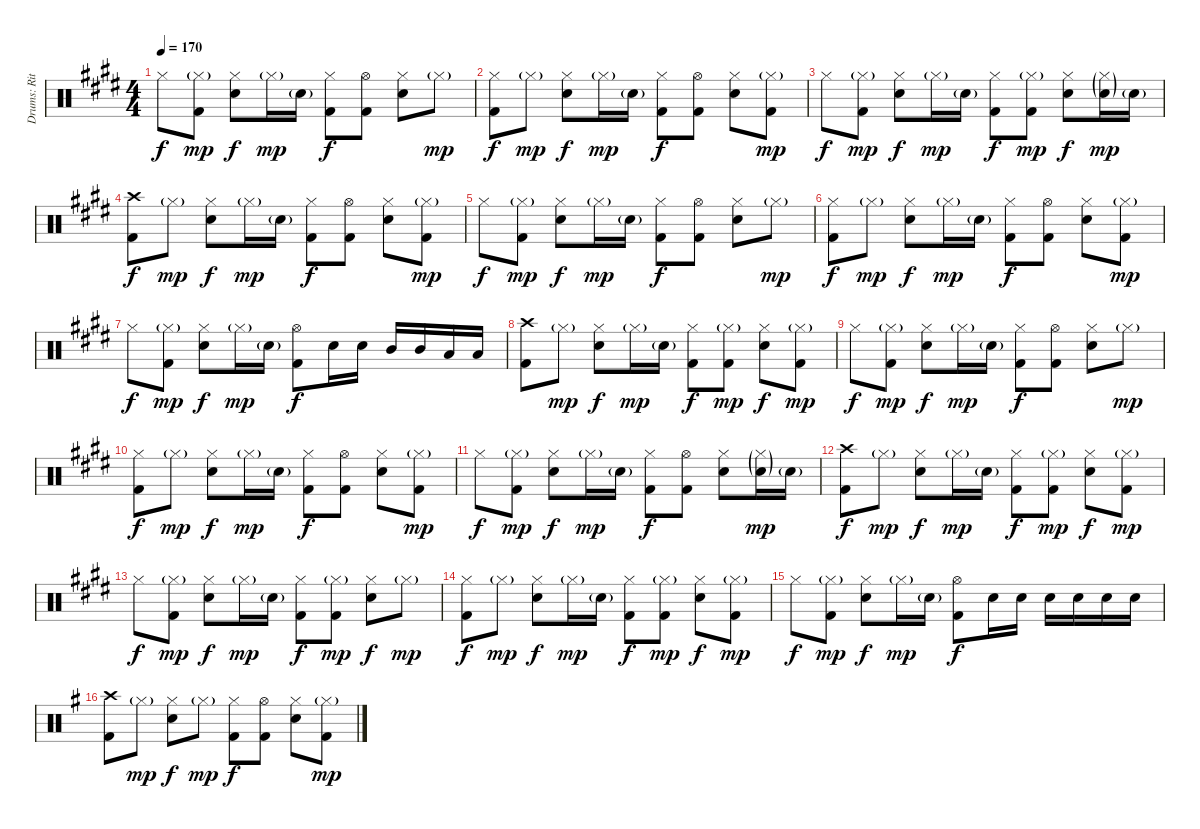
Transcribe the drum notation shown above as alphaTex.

\track ("Drums: Ritsu Tainaka" "Drums: Rit") {instrument percussion}
\staff {score}
\articulation defaults
\ts (4 4)
\tempo 170
\clef neutral
\ks e "Hi-Hat (closed)".8{dy f}
("Hi-Hat (closed)"{g} "Kick (hit) 2").8{dy mp} ("Hi-Hat (closed)" "Electric Snare (hit)").8{dy f} "Hi-Hat (closed)"{g}.16{dy mp} "Electric Snare (hit)"{g}.16 ("Hi-Hat (closed)" "Kick (hit) 2").8{dy f} ("Hi-Hat (open)" "Kick (hit) 2").8 ("Hi-Hat (closed)" "Electric Snare (hit)").8 "Hi-Hat (closed)"{g}.8{dy mp} |
("Hi-Hat (closed)" "Kick (hit) 2").8{dy f} "Hi-Hat (closed)"{g}.8{dy mp} ("Hi-Hat (closed)" "Electric Snare (hit)").8{dy f} "Hi-Hat (closed)"{g}.16{dy mp} "Electric Snare (hit)"{g}.16 ("Hi-Hat (closed)" "Kick (hit) 2").8{dy f} ("Hi-Hat (open)" "Kick (hit) 2").8 ("Hi-Hat (closed)" "Electric Snare (hit)").8 ("Hi-Hat (closed)"{g} "Kick (hit) 2").8{dy mp} |
"Hi-Hat (closed)".8{dy f} ("Hi-Hat (closed)"{g} "Kick (hit) 2").8{dy mp} ("Hi-Hat (closed)" "Electric Snare (hit)").8{dy f} "Hi-Hat (closed)"{g}.16{dy mp} "Electric Snare (hit)"{g}.16 ("Hi-Hat (closed)" "Kick (hit) 2").8{dy f} ("Hi-Hat (closed)"{g} "Kick (hit) 2").8{dy mp} ("Hi-Hat (closed)" "Electric Snare (hit)").8{dy f} ("Hi-Hat (closed)"{g} "Electric Snare (hit)"{g}).16{dy mp} "Electric Snare (hit)"{g}.16 |
("Crash high (hit)" "Kick (hit) 2").8{dy f} "Hi-Hat (closed)"{g}.8{dy mp} ("Hi-Hat (closed)" "Electric Snare (hit)").8{dy f} "Hi-Hat (closed)"{g}.16{dy mp} "Electric Snare (hit)"{g}.16 ("Hi-Hat (closed)" "Kick (hit) 2").8{dy f} ("Hi-Hat (open)" "Kick (hit) 2").8 ("Hi-Hat (closed)" "Electric Snare (hit)").8 ("Hi-Hat (closed)"{g} "Kick (hit) 2").8{dy mp} |
"Hi-Hat (closed)".8{dy f} ("Hi-Hat (closed)"{g} "Kick (hit) 2").8{dy mp} ("Hi-Hat (closed)" "Electric Snare (hit)").8{dy f} "Hi-Hat (closed)"{g}.16{dy mp} "Electric Snare (hit)"{g}.16 ("Hi-Hat (closed)" "Kick (hit) 2").8{dy f} ("Hi-Hat (open)" "Kick (hit) 2").8 ("Hi-Hat (closed)" "Electric Snare (hit)").8 "Hi-Hat (closed)"{g}.8{dy mp} |
("Hi-Hat (closed)" "Kick (hit) 2").8{dy f} "Hi-Hat (closed)"{g}.8{dy mp} ("Hi-Hat (closed)" "Electric Snare (hit)").8{dy f} "Hi-Hat (closed)"{g}.16{dy mp} "Electric Snare (hit)"{g}.16 ("Hi-Hat (closed)" "Kick (hit) 2").8{dy f} ("Hi-Hat (open)" "Kick (hit) 2").8 ("Hi-Hat (closed)" "Electric Snare (hit)").8 ("Hi-Hat (closed)"{g} "Kick (hit) 2").8{dy mp} |
"Hi-Hat (closed)".8{dy f} ("Hi-Hat (closed)"{g} "Kick (hit) 2").8{dy mp} ("Hi-Hat (closed)" "Electric Snare (hit)").8{dy f} "Hi-Hat (closed)"{g}.16{dy mp} "Electric Snare (hit)"{g}.16 ("Hi-Hat (open)" "Kick (hit) 2").8{dy f} "Electric Snare (hit)".16 "Electric Snare (hit)".16 "Mid Tom (hit)".16 "Mid Tom (hit)".16 "Low Tom (hit)".16 "Low Tom (hit)".16 |
("Crash high (hit)" "Kick (hit) 2").8 "Hi-Hat (closed)"{g}.8{dy mp} ("Hi-Hat (closed)" "Electric Snare (hit)").8{dy f} "Hi-Hat (closed)"{g}.16{dy mp} "Electric Snare (hit)"{g}.16 ("Hi-Hat (closed)" "Kick (hit) 2").8{dy f} ("Hi-Hat (closed)"{g} "Kick (hit) 2").8{dy mp} ("Hi-Hat (closed)" "Electric Snare (hit)").8{dy f} ("Hi-Hat (closed)"{g} "Kick (hit) 2").8{dy mp} |
"Hi-Hat (closed)".8{dy f} ("Hi-Hat (closed)"{g} "Kick (hit) 2").8{dy mp} ("Hi-Hat (closed)" "Electric Snare (hit)").8{dy f} "Hi-Hat (closed)"{g}.16{dy mp} "Electric Snare (hit)"{g}.16 ("Hi-Hat (closed)" "Kick (hit) 2").8{dy f} ("Hi-Hat (open)" "Kick (hit) 2").8 ("Hi-Hat (closed)" "Electric Snare (hit)").8 "Hi-Hat (closed)"{g}.8{dy mp} |
("Hi-Hat (closed)" "Kick (hit) 2").8{dy f} "Hi-Hat (closed)"{g}.8{dy mp} ("Hi-Hat (closed)" "Electric Snare (hit)").8{dy f} "Hi-Hat (closed)"{g}.16{dy mp} "Electric Snare (hit)"{g}.16 ("Hi-Hat (closed)" "Kick (hit) 2").8{dy f} ("Hi-Hat (open)" "Kick (hit) 2").8 ("Hi-Hat (closed)" "Electric Snare (hit)").8 ("Hi-Hat (closed)"{g} "Kick (hit) 2").8{dy mp} |
"Hi-Hat (closed)".8{dy f} ("Hi-Hat (closed)"{g} "Kick (hit) 2").8{dy mp} ("Hi-Hat (closed)" "Electric Snare (hit)").8{dy f} "Hi-Hat (closed)"{g}.16{dy mp} "Electric Snare (hit)"{g}.16 ("Hi-Hat (closed)" "Kick (hit) 2").8{dy f} ("Hi-Hat (open)" "Kick (hit) 2").8 ("Hi-Hat (closed)" "Electric Snare (hit)").8 ("Hi-Hat (closed)"{g} "Electric Snare (hit)"{g}).16{dy mp} "Electric Snare (hit)"{g}.16 |
("Crash high (hit)" "Kick (hit) 2").8{dy f} "Hi-Hat (closed)"{g}.8{dy mp} ("Hi-Hat (closed)" "Electric Snare (hit)").8{dy f} "Hi-Hat (closed)"{g}.16{dy mp} "Electric Snare (hit)"{g}.16 ("Hi-Hat (closed)" "Kick (hit) 2").8{dy f} ("Hi-Hat (closed)"{g} "Kick (hit) 2").8{dy mp} ("Hi-Hat (closed)" "Electric Snare (hit)").8{dy f} ("Hi-Hat (closed)"{g} "Kick (hit) 2").8{dy mp} |
"Hi-Hat (closed)".8{dy f} ("Hi-Hat (closed)"{g} "Kick (hit) 2").8{dy mp} ("Hi-Hat (closed)" "Electric Snare (hit)").8{dy f} "Hi-Hat (closed)"{g}.16{dy mp} "Electric Snare (hit)"{g}.16 ("Hi-Hat (closed)" "Kick (hit) 2").8{dy f} ("Hi-Hat (closed)"{g} "Kick (hit) 2").8{dy mp} ("Hi-Hat (closed)" "Electric Snare (hit)").8{dy f} "Hi-Hat (closed)"{g}.8{dy mp} |
("Hi-Hat (closed)" "Kick (hit) 2").8{dy f} "Hi-Hat (closed)"{g}.8{dy mp} ("Hi-Hat (closed)" "Electric Snare (hit)").8{dy f} "Hi-Hat (closed)"{g}.16{dy mp} "Electric Snare (hit)"{g}.16 ("Hi-Hat (closed)" "Kick (hit) 2").8{dy f} ("Hi-Hat (closed)"{g} "Kick (hit) 2").8{dy mp} ("Hi-Hat (closed)" "Electric Snare (hit)").8{dy f} ("Hi-Hat (closed)"{g} "Kick (hit) 2").8{dy mp} |
"Hi-Hat (closed)".8{dy f} ("Hi-Hat (closed)"{g} "Kick (hit) 2").8{dy mp} ("Hi-Hat (closed)" "Electric Snare (hit)").8{dy f} "Hi-Hat (closed)"{g}.16{dy mp} "Electric Snare (hit)"{g}.16 ("Hi-Hat (open)" "Kick (hit) 2").8{dy f} "Electric Snare (hit)".16 "Electric Snare (hit)".16 "Electric Snare (hit)".16 "Electric Snare (hit)".16 "Electric Snare (hit)".16 "Electric Snare (hit)".16 |
\ks eminor
("Crash high (hit)" "Kick (hit) 2").8 "Hi-Hat (closed)"{g}.8{dy mp} ("Hi-Hat (closed)" "Electric Snare (hit)").8{dy f} "Hi-Hat (closed)"{g}.8{dy mp} ("Hi-Hat (closed)" "Kick (hit) 2").8{dy f} ("Hi-Hat (open)" "Kick (hit) 2").8 ("Hi-Hat (closed)" "Electric Snare (hit)").8 ("Hi-Hat (closed)"{g} "Kick (hit) 2").8{dy mp}
